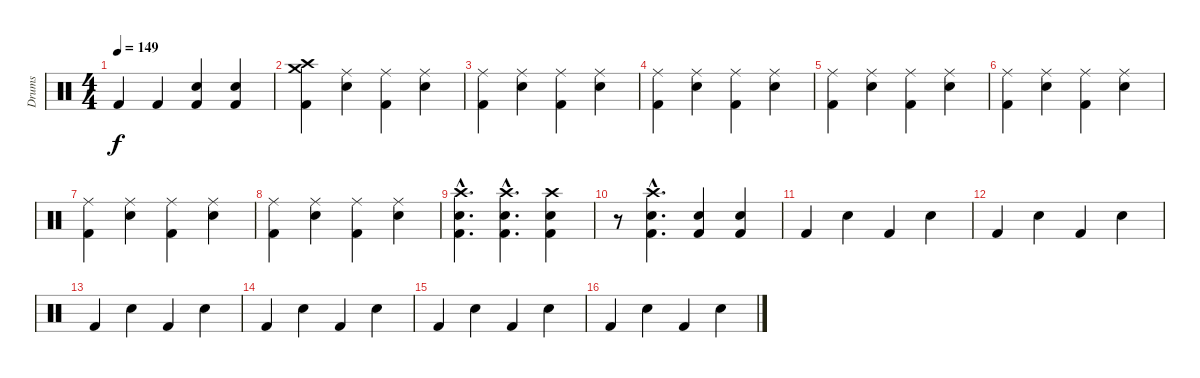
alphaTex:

\track ("Drums" "Drums") {instrument percussion}
\staff {score}
\articulation defaults
\ts (4 4)
\tempo 149
\clef neutral
\ks c "Kick (hit) 2".4{dy f} "Kick (hit) 2".4
("Snare (hit) 2" "Kick (hit) 2").4 ("Snare (hit) 2" "Kick (hit) 2").4 |
("Crash high (hit)" "Crash medium (hit)" "Kick (hit) 2").4 ("Ride (middle)" "Snare (hit) 2").4 ("Ride (middle)" "Kick (hit) 2").4 ("Ride (middle)" "Snare (hit) 2").4 |
("Ride (middle)" "Kick (hit) 2").4 ("Ride (middle)" "Snare (hit) 2").4 ("Ride (middle)" "Kick (hit) 2").4 ("Ride (middle)" "Snare (hit) 2").4 |
("Ride (middle)" "Kick (hit) 2").4 ("Ride (middle)" "Snare (hit) 2").4 ("Ride (middle)" "Kick (hit) 2").4 ("Ride (middle)" "Snare (hit) 2").4 |
("Ride (middle)" "Kick (hit) 2").4 ("Ride (middle)" "Snare (hit) 2").4 ("Ride (middle)" "Kick (hit) 2").4 ("Ride (middle)" "Snare (hit) 2").4 |
("Ride (middle)" "Kick (hit) 2").4 ("Ride (middle)" "Snare (hit) 2").4 ("Ride (middle)" "Kick (hit) 2").4 ("Ride (middle)" "Snare (hit) 2").4 |
("Ride (middle)" "Kick (hit) 2").4 ("Ride (middle)" "Snare (hit) 2").4 ("Ride (middle)" "Kick (hit) 2").4 ("Ride (middle)" "Snare (hit) 2").4 |
("Ride (middle)" "Kick (hit) 2").4 ("Ride (middle)" "Snare (hit) 2").4 ("Ride (middle)" "Kick (hit) 2").4 ("Ride (middle)" "Snare (hit) 2").4 |
("Crash high (hit)"{hac} "Snare (hit) 2"{hac} "Kick (hit) 2"{hac}).4{d} ("Crash high (hit)"{hac} "Snare (hit) 2"{hac} "Kick (hit) 2"{hac}).4{d} ("Crash high (hit)" "Snare (hit) 2" "Kick (hit) 2").4 |
r.8 ("Crash high (hit)"{hac} "Snare (hit) 2"{hac} "Kick (hit) 2"{hac}).4{d} ("Snare (hit) 2" "Kick (hit) 2").4 ("Snare (hit) 2" "Kick (hit) 2").4 |
"Kick (hit) 2".4 "Snare (hit) 2".4 "Kick (hit) 2".4 "Snare (hit) 2".4 |
"Kick (hit) 2".4 "Snare (hit) 2".4 "Kick (hit) 2".4 "Snare (hit) 2".4 |
"Kick (hit) 2".4 "Snare (hit) 2".4 "Kick (hit) 2".4 "Snare (hit) 2".4 |
"Kick (hit) 2".4 "Snare (hit) 2".4 "Kick (hit) 2".4 "Snare (hit) 2".4 |
"Kick (hit) 2".4 "Snare (hit) 2".4 "Kick (hit) 2".4 "Snare (hit) 2".4 |
"Kick (hit) 2".4 "Snare (hit) 2".4 "Kick (hit) 2".4 "Snare (hit) 2".4
